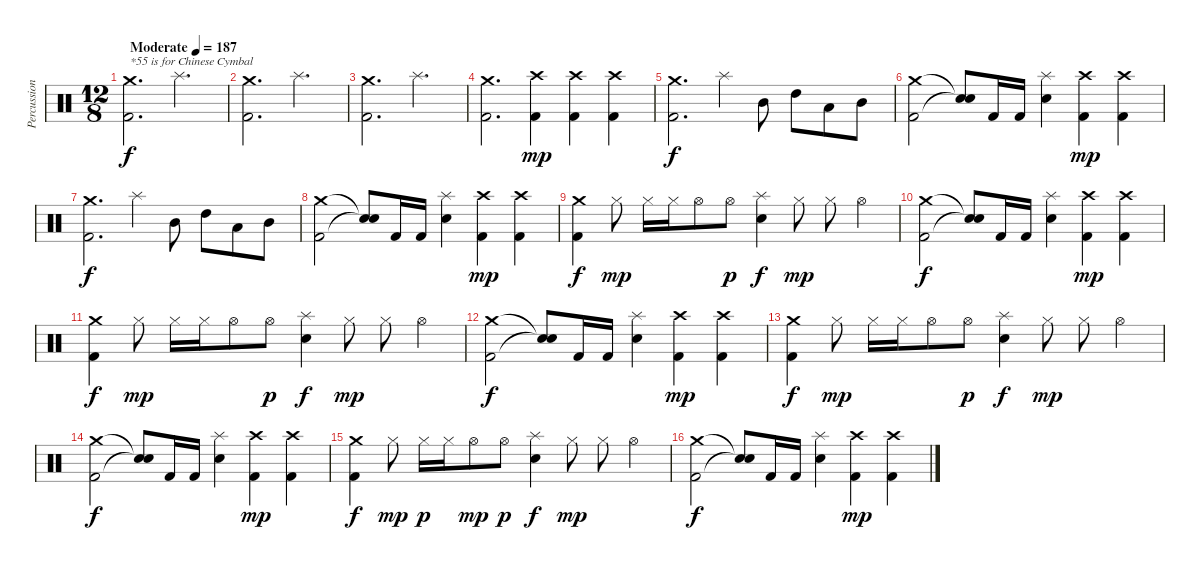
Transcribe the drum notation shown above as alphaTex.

\track ("Percussion" "Percussion") {instrument percussion}
\staff {score}
\articulation defaults
\ts (12 8)
\tempo (187 "Moderate")
\clef neutral
\ks c
("Crash medium (hit)" "Kick (hit) 2").2{d txt "*55 is for Chinese Cymbal" dy f} "Splash (hit)".2{d} |
("Crash medium (hit)" "Kick (hit) 2").2{d} "Splash (hit)".2{d} |
("Crash medium (hit)" "Kick (hit) 2").2{d} "Splash (hit)".2{d} |
("Crash medium (hit)" "Kick (hit) 2").2{d} ("Crash high (hit)" "Kick (hit) 2").4{dy mp} ("Crash high (hit)" "Kick (hit) 2").4 ("Crash high (hit)" "Kick (hit) 2").4 |
("Crash medium (hit)" "Kick (hit) 2").2{d dy f} "Splash (hit)".4 "Mid Tom (hit)".8 "High Tom (hit)".8 "Low Tom (hit)".8 "Mid Tom (hit)".8 |
("Crash medium (hit)" "Kick (hit) 2").2 ("Snare (hit)"{t} "Snare (hit)"{t}).8 "Kick (hit) 2".16 "Kick (hit) 2".16 ("Splash (hit)" "Snare (hit) 2").4 ("Crash high (hit)" "Kick (hit) 2").4{dy mp} ("Crash high (hit)" "Kick (hit) 2").4 |
("Crash medium (hit)" "Kick (hit) 2").2{d dy f} "Splash (hit)".4 "Mid Tom (hit)".8 "High Tom (hit)".8 "Low Tom (hit)".8 "Mid Tom (hit)".8 |
("Crash medium (hit)" "Kick (hit) 2").2 ("Snare (hit)"{t} "Snare (hit)"{t}).8 "Kick (hit) 2".16 "Kick (hit) 2".16 ("Splash (hit)" "Snare (hit) 2").4 ("Crash high (hit)" "Kick (hit) 2").4{dy mp} ("Crash high (hit)" "Kick (hit) 2").4 |
("Crash medium (hit)" "Kick (hit) 2").4{dy f} "Hi-Hat (closed)".8{dy mp} "Hi-Hat (closed)".16 "Hi-Hat (closed)".16 "Hi-Hat (open)".8 "Hi-Hat (open)".8{dy p} ("Splash (hit)" "Snare (hit) 2").4{dy f} "Hi-Hat (closed)".8{dy mp} "Hi-Hat (closed)".8 "Hi-Hat (open)".4 |
("Crash medium (hit)" "Kick (hit) 2").2{dy f} ("Snare (hit)"{t} "Snare (hit)"{t}).8 "Kick (hit) 2".16 "Kick (hit) 2".16 ("Splash (hit)" "Snare (hit) 2").4 ("Crash high (hit)" "Kick (hit) 2").4{dy mp} ("Crash high (hit)" "Kick (hit) 2").4 |
("Crash medium (hit)" "Kick (hit) 2").4{dy f} "Hi-Hat (closed)".8{dy mp} "Hi-Hat (closed)".16 "Hi-Hat (closed)".16 "Hi-Hat (open)".8 "Hi-Hat (open)".8{dy p} ("Splash (hit)" "Snare (hit) 2").4{dy f} "Hi-Hat (closed)".8{dy mp} "Hi-Hat (closed)".8 "Hi-Hat (open)".4 |
("Crash medium (hit)" "Kick (hit) 2").2{dy f} ("Snare (hit)"{t} "Snare (hit)"{t}).8 "Kick (hit) 2".16 "Kick (hit) 2".16 ("Splash (hit)" "Snare (hit) 2").4 ("Crash high (hit)" "Kick (hit) 2").4{dy mp} ("Crash high (hit)" "Kick (hit) 2").4 |
("Crash medium (hit)" "Kick (hit) 2").4{dy f} "Hi-Hat (closed)".8{dy mp} "Hi-Hat (closed)".16 "Hi-Hat (closed)".16 "Hi-Hat (open)".8 "Hi-Hat (open)".8{dy p} ("Splash (hit)" "Snare (hit) 2").4{dy f} "Hi-Hat (closed)".8{dy mp} "Hi-Hat (closed)".8 "Hi-Hat (open)".4 |
("Crash medium (hit)" "Kick (hit) 2").2{dy f} ("Snare (hit)"{t} "Snare (hit)"{t}).8 "Kick (hit) 2".16 "Kick (hit) 2".16 ("Splash (hit)" "Snare (hit) 2").4 ("Crash high (hit)" "Kick (hit) 2").4{dy mp} ("Crash high (hit)" "Kick (hit) 2").4 |
("Crash medium (hit)" "Kick (hit) 2").4{dy f} "Hi-Hat (closed)".8{dy mp} "Hi-Hat (closed)".16{dy p} "Hi-Hat (closed)".16 "Hi-Hat (open)".8{dy mp} "Hi-Hat (open)".8{dy p} ("Splash (hit)" "Snare (hit) 2").4{dy f} "Hi-Hat (closed)".8{dy mp} "Hi-Hat (closed)".8 "Hi-Hat (open)".4 |
("Crash medium (hit)" "Kick (hit) 2").2{dy f} ("Snare (hit)"{t} "Snare (hit)"{t}).8 "Kick (hit) 2".16 "Kick (hit) 2".16 ("Splash (hit)" "Snare (hit) 2").4 ("Crash high (hit)" "Kick (hit) 2").4{dy mp} ("Crash high (hit)" "Kick (hit) 2").4
